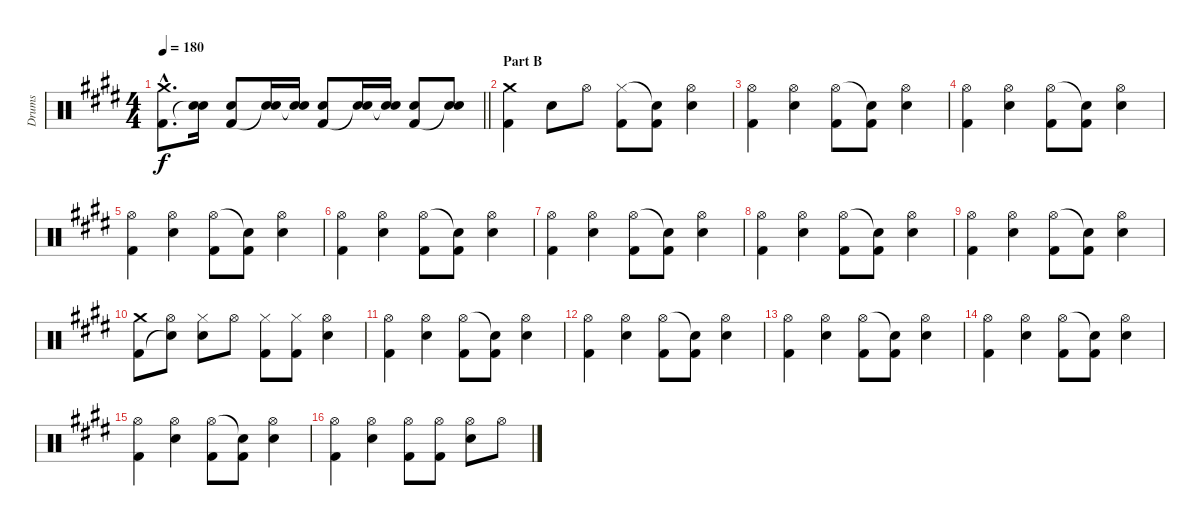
\track ("Drums" "Drums") {instrument percussion}
\staff {score}
\articulation defaults
\ts (4 4)
\tempo 180
\clef neutral
\barLineRight lightlight
\ks e
("Crash medium (hit)"{hac} "Kick (hit) 2"{hac}).8{d dy f} ("Electric Snare (hit)" "Snare (hit)"{t}).16 ("Electric Snare (hit)" "Kick (hit) 2").8 ("Electric Snare (hit)" "Snare (hit)"{t}).16 ("Electric Snare (hit)" "Snare (hit)"{t}).16 ("Electric Snare (hit)" "Kick (hit) 2").8 ("Electric Snare (hit)" "Snare (hit)"{t}).16 ("Electric Snare (hit)" "Snare (hit)"{t}).16 ("Electric Snare (hit)" "Kick (hit) 2").8 ("Electric Snare (hit)" "Snare (hit)"{t}).8 |
\section ("" "Part B")
("Crash medium (hit)" "Kick (hit) 2").4 "Electric Snare (hit)".8 "Hi-Hat (open)".8 ("Hi-Hat (closed)" "Kick (hit) 2").8 ("Snare (hit)"{t} "Kick (hit) 2").8 ("Hi-Hat (open)" "Electric Snare (hit)").4 |
("Hi-Hat (open)" "Kick (hit) 2").4 ("Hi-Hat (open)" "Electric Snare (hit)").4 ("Hi-Hat (open)" "Kick (hit) 2").8 ("Snare (hit)"{t} "Kick (hit) 2").8 ("Hi-Hat (open)" "Electric Snare (hit)").4 |
("Hi-Hat (open)" "Kick (hit) 2").4 ("Hi-Hat (open)" "Electric Snare (hit)").4 ("Hi-Hat (open)" "Kick (hit) 2").8 ("Snare (hit)"{t} "Kick (hit) 2").8 ("Hi-Hat (open)" "Electric Snare (hit)").4 |
("Hi-Hat (open)" "Kick (hit) 2").4 ("Hi-Hat (open)" "Electric Snare (hit)").4 ("Hi-Hat (open)" "Kick (hit) 2").8 ("Snare (hit)"{t} "Kick (hit) 2").8 ("Hi-Hat (open)" "Electric Snare (hit)").4 |
("Hi-Hat (open)" "Kick (hit) 2").4 ("Hi-Hat (open)" "Electric Snare (hit)").4 ("Hi-Hat (open)" "Kick (hit) 2").8 ("Snare (hit)"{t} "Kick (hit) 2").8 ("Hi-Hat (open)" "Electric Snare (hit)").4 |
("Hi-Hat (open)" "Kick (hit) 2").4 ("Hi-Hat (open)" "Electric Snare (hit)").4 ("Hi-Hat (open)" "Kick (hit) 2").8 ("Snare (hit)"{t} "Kick (hit) 2").8 ("Hi-Hat (open)" "Electric Snare (hit)").4 |
("Hi-Hat (open)" "Kick (hit) 2").4 ("Hi-Hat (open)" "Electric Snare (hit)").4 ("Hi-Hat (open)" "Kick (hit) 2").8 ("Snare (hit)"{t} "Kick (hit) 2").8 ("Hi-Hat (open)" "Electric Snare (hit)").4 |
("Hi-Hat (open)" "Kick (hit) 2").4 ("Hi-Hat (open)" "Electric Snare (hit)").4 ("Hi-Hat (open)" "Kick (hit) 2").8 ("Snare (hit)"{t} "Kick (hit) 2").8 ("Hi-Hat (open)" "Electric Snare (hit)").4 |
("Crash medium (hit)" "Kick (hit) 2").8 ("Hi-Hat (open)" "Snare (hit)"{t}).8 ("Hi-Hat (closed)" "Electric Snare (hit)").8 "Hi-Hat (open)".8 ("Hi-Hat (closed)" "Kick (hit) 2").8 ("Hi-Hat (closed)" "Kick (hit) 2").8 ("Hi-Hat (open)" "Electric Snare (hit)").4 |
("Hi-Hat (open)" "Kick (hit) 2").4 ("Hi-Hat (open)" "Electric Snare (hit)").4 ("Hi-Hat (open)" "Kick (hit) 2").8 ("Snare (hit)"{t} "Kick (hit) 2").8 ("Hi-Hat (open)" "Electric Snare (hit)").4 |
("Hi-Hat (open)" "Kick (hit) 2").4 ("Hi-Hat (open)" "Electric Snare (hit)").4 ("Hi-Hat (open)" "Kick (hit) 2").8 ("Snare (hit)"{t} "Kick (hit) 2").8 ("Hi-Hat (open)" "Electric Snare (hit)").4 |
("Hi-Hat (open)" "Kick (hit) 2").4 ("Hi-Hat (open)" "Electric Snare (hit)").4 ("Hi-Hat (open)" "Kick (hit) 2").8 ("Snare (hit)"{t} "Kick (hit) 2").8 ("Hi-Hat (open)" "Electric Snare (hit)").4 |
("Hi-Hat (open)" "Kick (hit) 2").4 ("Hi-Hat (open)" "Electric Snare (hit)").4 ("Hi-Hat (open)" "Kick (hit) 2").8 ("Snare (hit)"{t} "Kick (hit) 2").8 ("Hi-Hat (open)" "Electric Snare (hit)").4 |
("Hi-Hat (open)" "Kick (hit) 2").4 ("Hi-Hat (open)" "Electric Snare (hit)").4 ("Hi-Hat (open)" "Kick (hit) 2").8 ("Snare (hit)"{t} "Kick (hit) 2").8 ("Hi-Hat (open)" "Electric Snare (hit)").4 |
("Hi-Hat (open)" "Kick (hit) 2").4 ("Hi-Hat (open)" "Electric Snare (hit)").4 ("Hi-Hat (open)" "Kick (hit) 2").8 ("Hi-Hat (open)" "Kick (hit) 2").8 ("Hi-Hat (open)" "Electric Snare (hit)").8 "Hi-Hat (open)".8
